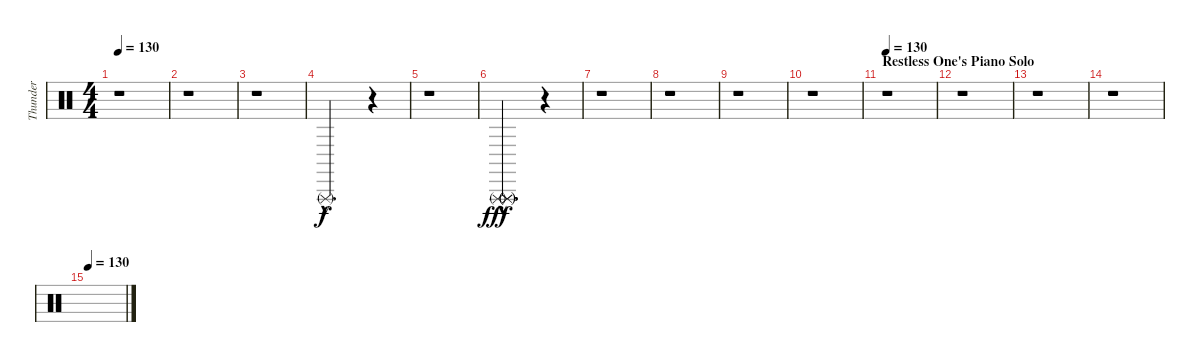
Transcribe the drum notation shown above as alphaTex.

\track ("Thunder" "Thunder") {instrument percussion}
\staff {score}
\articulation defaults
\ts (4 4)
\tempo 130
\clef neutral
\ks c
r.1{dy f} |
r.1 |
r.1 |
"Triangle (rnute)"{hac}.2{d} r.4 |
r.1 |
("Triangle (rnute)"{hac} "Triangle (rnute)"{hac} "Triangle (rnute)"{hac}).2{d dy fff} r.4 |
r.1 |
r.1 |
r.1 |
r.1 |
\section ("" "Restless One's Piano Solo")
\tempo 130
r.1 |
r.1 |
r.1 |
r.1 |
\tempo 130
